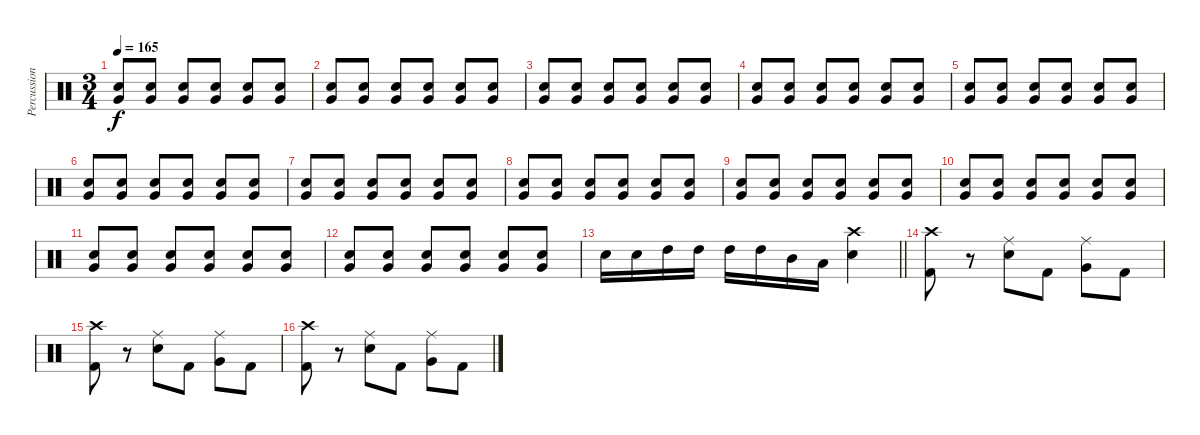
\track ("Percussion (Moose)" "Percussion") {instrument percussion}
\staff {score}
\articulation defaults
\ts (3 4)
\tempo 165
\clef neutral
\ks c
("Electric Snare (hit)" "Very Low Tom (hit)").8{dy f} ("Electric Snare (hit)" "Very Low Tom (hit)").8 ("Electric Snare (hit)" "Very Low Tom (hit)").8 ("Electric Snare (hit)" "Very Low Tom (hit)").8 ("Electric Snare (hit)" "Very Low Tom (hit)").8 ("Electric Snare (hit)" "Very Low Tom (hit)").8 |
("Electric Snare (hit)" "Very Low Tom (hit)").8{volume 9} ("Electric Snare (hit)" "Very Low Tom (hit)").8 ("Electric Snare (hit)" "Very Low Tom (hit)").8 ("Electric Snare (hit)" "Very Low Tom (hit)").8 ("Electric Snare (hit)" "Very Low Tom (hit)").8 ("Electric Snare (hit)" "Very Low Tom (hit)").8 |
("Electric Snare (hit)" "Very Low Tom (hit)").8 ("Electric Snare (hit)" "Very Low Tom (hit)").8 ("Electric Snare (hit)" "Very Low Tom (hit)").8 ("Electric Snare (hit)" "Very Low Tom (hit)").8 ("Electric Snare (hit)" "Very Low Tom (hit)").8 ("Electric Snare (hit)" "Very Low Tom (hit)").8 |
("Electric Snare (hit)" "Very Low Tom (hit)").8 ("Electric Snare (hit)" "Very Low Tom (hit)").8 ("Electric Snare (hit)" "Very Low Tom (hit)").8 ("Electric Snare (hit)" "Very Low Tom (hit)").8 ("Electric Snare (hit)" "Very Low Tom (hit)").8 ("Electric Snare (hit)" "Very Low Tom (hit)").8 |
("Electric Snare (hit)" "Very Low Tom (hit)").8 ("Electric Snare (hit)" "Very Low Tom (hit)").8 ("Electric Snare (hit)" "Very Low Tom (hit)").8 ("Electric Snare (hit)" "Very Low Tom (hit)").8 ("Electric Snare (hit)" "Very Low Tom (hit)").8 ("Electric Snare (hit)" "Very Low Tom (hit)").8 |
("Electric Snare (hit)" "Very Low Tom (hit)").8{volume 12} ("Electric Snare (hit)" "Very Low Tom (hit)").8 ("Electric Snare (hit)" "Very Low Tom (hit)").8 ("Electric Snare (hit)" "Very Low Tom (hit)").8 ("Electric Snare (hit)" "Very Low Tom (hit)").8 ("Electric Snare (hit)" "Very Low Tom (hit)").8 |
("Electric Snare (hit)" "Very Low Tom (hit)").8{volume 13} ("Electric Snare (hit)" "Very Low Tom (hit)").8 ("Electric Snare (hit)" "Very Low Tom (hit)").8 ("Electric Snare (hit)" "Very Low Tom (hit)").8 ("Electric Snare (hit)" "Very Low Tom (hit)").8 ("Electric Snare (hit)" "Very Low Tom (hit)").8 |
("Electric Snare (hit)" "Very Low Tom (hit)").8 ("Electric Snare (hit)" "Very Low Tom (hit)").8 ("Electric Snare (hit)" "Very Low Tom (hit)").8 ("Electric Snare (hit)" "Very Low Tom (hit)").8 ("Electric Snare (hit)" "Very Low Tom (hit)").8 ("Electric Snare (hit)" "Very Low Tom (hit)").8 |
("Electric Snare (hit)" "Very Low Tom (hit)").8 ("Electric Snare (hit)" "Very Low Tom (hit)").8 ("Electric Snare (hit)" "Very Low Tom (hit)").8 ("Electric Snare (hit)" "Very Low Tom (hit)").8 ("Electric Snare (hit)" "Very Low Tom (hit)").8 ("Electric Snare (hit)" "Very Low Tom (hit)").8 |
("Electric Snare (hit)" "Very Low Tom (hit)").8 ("Electric Snare (hit)" "Very Low Tom (hit)").8 ("Electric Snare (hit)" "Very Low Tom (hit)").8 ("Electric Snare (hit)" "Very Low Tom (hit)").8 ("Electric Snare (hit)" "Very Low Tom (hit)").8 ("Electric Snare (hit)" "Very Low Tom (hit)").8 |
("Electric Snare (hit)" "Very Low Tom (hit)").8 ("Electric Snare (hit)" "Very Low Tom (hit)").8 ("Electric Snare (hit)" "Very Low Tom (hit)").8 ("Electric Snare (hit)" "Very Low Tom (hit)").8 ("Electric Snare (hit)" "Very Low Tom (hit)").8 ("Electric Snare (hit)" "Very Low Tom (hit)").8 |
("Electric Snare (hit)" "Very Low Tom (hit)").8 ("Electric Snare (hit)" "Very Low Tom (hit)").8 ("Electric Snare (hit)" "Very Low Tom (hit)").8 ("Electric Snare (hit)" "Very Low Tom (hit)").8 ("Electric Snare (hit)" "Very Low Tom (hit)").8 ("Electric Snare (hit)" "Very Low Tom (hit)").8 |
\barLineRight lightlight "Electric Snare (hit)".16 "Electric Snare (hit)".16 "High Tom (hit)".16 "High Tom (hit)".16 "High Tom (hit)".16 "High Tom (hit)".16 "Mid Tom (hit)".16 "Low Tom (hit)".16
("Crash high (hit)" "Electric Snare (hit)").4 |
("Crash high (hit)" "Kick (hit) 2").8 r.8 ("Ride (middle)" "Electric Snare (hit)").8 "Kick (hit) 2".8 ("Ride (middle)" "Very Low Tom (hit)").8 "Kick (hit) 2".8 |
("Crash high (hit)" "Kick (hit) 2").8 r.8 ("Ride (middle)" "Electric Snare (hit)").8 "Kick (hit) 2".8 ("Ride (middle)" "Very Low Tom (hit)").8 "Kick (hit) 2".8 |
("Crash high (hit)" "Kick (hit) 2").8 r.8 ("Ride (middle)" "Electric Snare (hit)").8 "Kick (hit) 2".8 ("Ride (middle)" "Very Low Tom (hit)").8 "Kick (hit) 2".8
